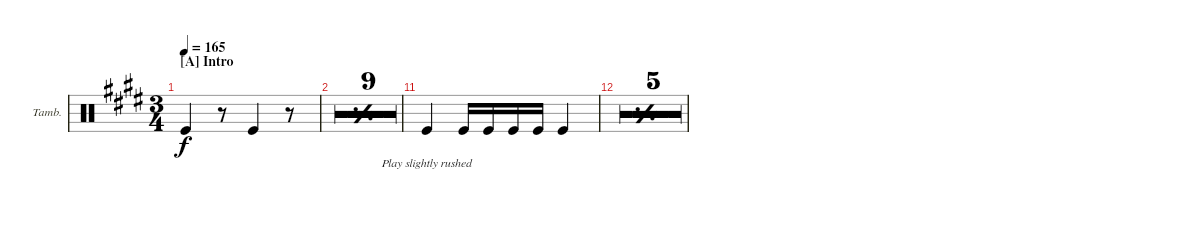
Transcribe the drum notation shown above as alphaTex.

\defaultSystemsLayout 4
\bracketExtendMode groupsimilarinstruments
\firstSystemTrackNameOrientation horizontal
\otherSystemsTrackNameOrientation horizontal
\track ("Tambourine" "Tamb.") {multiBarRest instrument percussion}
\staff {score}
\articulation defaults
\ts (3 4)
\section ("A" "Intro")
\tempo 165
\clef neutral
\ks e "Kick (hit)".4{lyrics (0 "") lyrics (1 "") lyrics (2 "") lyrics (3 "") lyrics (4 "") dy f}
r.8 "Kick (hit)".4 r.8 |
\simile simple
|
\simile firstofdouble
|
\simile secondofdouble
|
\simile firstofdouble
|
\simile secondofdouble
|
\simile firstofdouble
|
\simile secondofdouble
|
\simile firstofdouble
|
\simile secondofdouble
|
\simile none "Kick (hit)".4{lyrics (0 "Play slightly rushed") lyrics (1 "") lyrics (2 "") lyrics (3 "") lyrics (4 "")} "Kick (hit)".16{lyrics (0 "") lyrics (1 "") lyrics (2 "") lyrics (3 "") lyrics (4 "")} "Kick (hit)".16{lyrics (0 "") lyrics (1 "") lyrics (2 "") lyrics (3 "") lyrics (4 "")} "Kick (hit)".16 "Kick (hit)".16 "Kick (hit)".4
|
\simile simple
|
\simile firstofdouble
|
\simile secondofdouble
|
\simile firstofdouble
|
\simile secondofdouble
